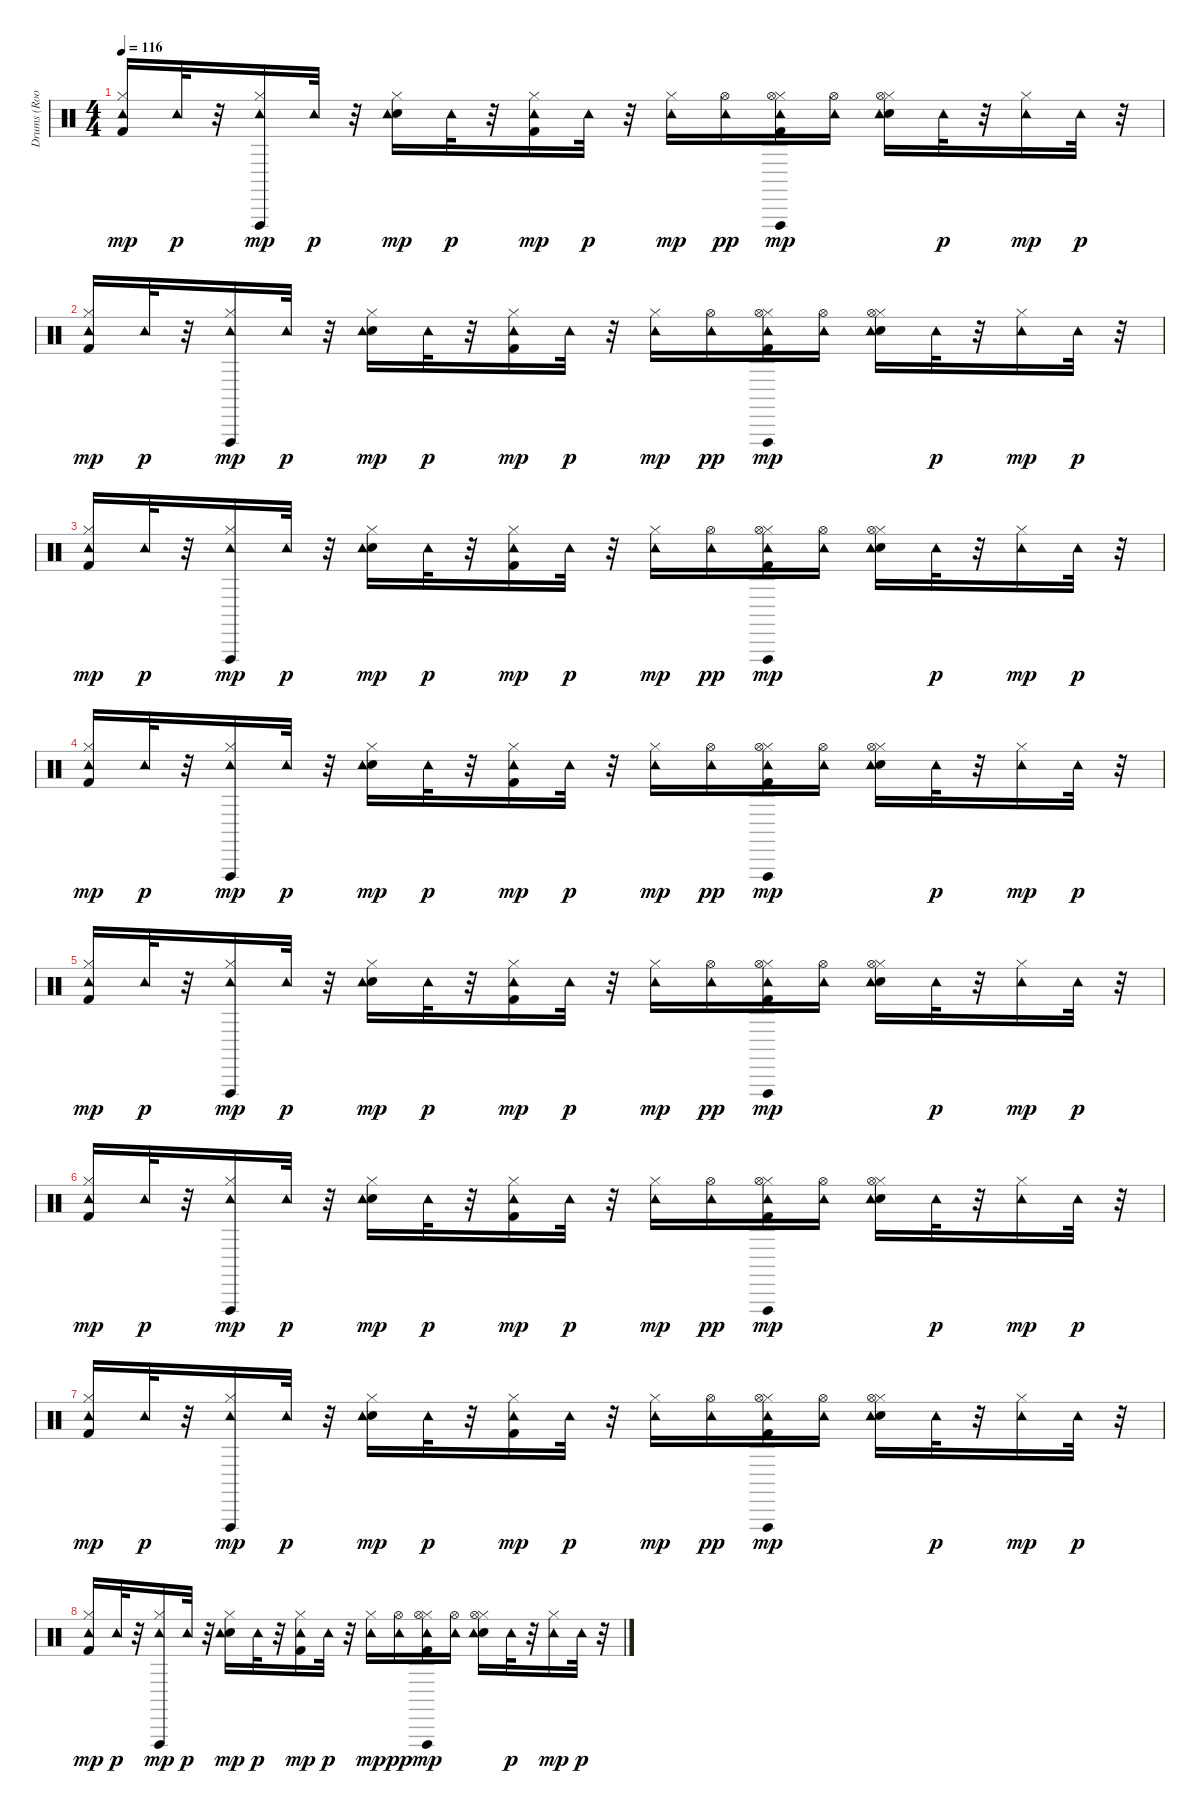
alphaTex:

\track ("Drums (Room Kit)    " "Drums (Roo") {instrument percussion}
\staff {score}
\articulation defaults
\ts (4 4)
\tempo 116
\clef neutral
\ks c
("Hi-Hat (closed)" "Kick (hit) 2" "Tambourine (hit)").16{dy mp} "Tambourine (hit)".32{dy p} r.32 ("Hi-Hat (closed)" "Tambourine (hit)" "Vibraslap (hit)").16{dy mp} "Tambourine (hit)".32{dy p} r.32 ("Hi-Hat (closed)" "Snare (hit) 2" "Tambourine (hit)").16{dy mp} "Tambourine (hit)".32{dy p} r.32 ("Hi-Hat (closed)" "Kick (hit) 2" "Tambourine (hit)").16{dy mp} "Tambourine (hit)".32{dy p} r.32 ("Hi-Hat (closed)" "Tambourine (hit)").16{dy mp} ("Tambourine (hit)" "Hi-Hat (open)").16{dy pp} ("Hi-Hat (closed)" "Kick (hit) 2" "Tambourine (hit)" "Hi-Hat (open)" "Vibraslap (hit)").16{dy mp} ("Tambourine (hit)" "Hi-Hat (open)").16 ("Hi-Hat (closed)" "Snare (hit) 2" "Tambourine (hit)" "Hi-Hat (open)").16 "Tambourine (hit)".32{dy p} r.32 ("Hi-Hat (closed)" "Tambourine (hit)").16{dy mp} "Tambourine (hit)".32{dy p} r.32 |
("Kick (hit) 2" "Hi-Hat (closed)" "Tambourine (hit)").16{dy mp} "Tambourine (hit)".32{dy p} r.32 ("Hi-Hat (closed)" "Tambourine (hit)" "Vibraslap (hit)").16{dy mp} "Tambourine (hit)".32{dy p} r.32 ("Snare (hit) 2" "Hi-Hat (closed)" "Tambourine (hit)").16{dy mp} "Tambourine (hit)".32{dy p} r.32 ("Kick (hit) 2" "Hi-Hat (closed)" "Tambourine (hit)").16{dy mp} "Tambourine (hit)".32{dy p} r.32 ("Hi-Hat (closed)" "Tambourine (hit)").16{dy mp} ("Tambourine (hit)" "Hi-Hat (open)").16{dy pp} ("Kick (hit) 2" "Hi-Hat (closed)" "Tambourine (hit)" "Hi-Hat (open)" "Vibraslap (hit)").16{dy mp} ("Tambourine (hit)" "Hi-Hat (open)").16 ("Snare (hit) 2" "Hi-Hat (closed)" "Tambourine (hit)" "Hi-Hat (open)").16 "Tambourine (hit)".32{dy p} r.32 ("Hi-Hat (closed)" "Tambourine (hit)").16{dy mp} "Tambourine (hit)".32{dy p} r.32 |
("Hi-Hat (closed)" "Kick (hit) 2" "Tambourine (hit)").16{dy mp} "Tambourine (hit)".32{dy p} r.32 ("Hi-Hat (closed)" "Tambourine (hit)" "Vibraslap (hit)").16{dy mp} "Tambourine (hit)".32{dy p} r.32 ("Hi-Hat (closed)" "Snare (hit) 2" "Tambourine (hit)").16{dy mp} "Tambourine (hit)".32{dy p} r.32 ("Hi-Hat (closed)" "Kick (hit) 2" "Tambourine (hit)").16{dy mp} "Tambourine (hit)".32{dy p} r.32 ("Hi-Hat (closed)" "Tambourine (hit)").16{dy mp} ("Tambourine (hit)" "Hi-Hat (open)").16{dy pp} ("Hi-Hat (closed)" "Kick (hit) 2" "Tambourine (hit)" "Hi-Hat (open)" "Vibraslap (hit)").16{dy mp} ("Tambourine (hit)" "Hi-Hat (open)").16 ("Hi-Hat (closed)" "Snare (hit) 2" "Tambourine (hit)" "Hi-Hat (open)").16 "Tambourine (hit)".32{dy p} r.32 ("Hi-Hat (closed)" "Tambourine (hit)").16{dy mp} "Tambourine (hit)".32{dy p} r.32 |
("Kick (hit) 2" "Hi-Hat (closed)" "Tambourine (hit)").16{dy mp} "Tambourine (hit)".32{dy p} r.32 ("Hi-Hat (closed)" "Tambourine (hit)" "Vibraslap (hit)").16{dy mp} "Tambourine (hit)".32{dy p} r.32 ("Snare (hit) 2" "Hi-Hat (closed)" "Tambourine (hit)").16{dy mp} "Tambourine (hit)".32{dy p} r.32 ("Kick (hit) 2" "Hi-Hat (closed)" "Tambourine (hit)").16{dy mp} "Tambourine (hit)".32{dy p} r.32 ("Hi-Hat (closed)" "Tambourine (hit)").16{dy mp} ("Tambourine (hit)" "Hi-Hat (open)").16{dy pp} ("Kick (hit) 2" "Hi-Hat (closed)" "Tambourine (hit)" "Hi-Hat (open)" "Vibraslap (hit)").16{dy mp} ("Tambourine (hit)" "Hi-Hat (open)").16 ("Snare (hit) 2" "Hi-Hat (closed)" "Tambourine (hit)" "Hi-Hat (open)").16 "Tambourine (hit)".32{dy p} r.32 ("Hi-Hat (closed)" "Tambourine (hit)").16{dy mp} "Tambourine (hit)".32{dy p} r.32 |
("Hi-Hat (closed)" "Kick (hit) 2" "Tambourine (hit)").16{dy mp} "Tambourine (hit)".32{dy p} r.32 ("Hi-Hat (closed)" "Tambourine (hit)" "Vibraslap (hit)").16{dy mp} "Tambourine (hit)".32{dy p} r.32 ("Hi-Hat (closed)" "Snare (hit) 2" "Tambourine (hit)").16{dy mp} "Tambourine (hit)".32{dy p} r.32 ("Hi-Hat (closed)" "Kick (hit) 2" "Tambourine (hit)").16{dy mp} "Tambourine (hit)".32{dy p} r.32 ("Hi-Hat (closed)" "Tambourine (hit)").16{dy mp} ("Tambourine (hit)" "Hi-Hat (open)").16{dy pp} ("Hi-Hat (closed)" "Kick (hit) 2" "Tambourine (hit)" "Hi-Hat (open)" "Vibraslap (hit)").16{dy mp} ("Tambourine (hit)" "Hi-Hat (open)").16 ("Hi-Hat (closed)" "Snare (hit) 2" "Tambourine (hit)" "Hi-Hat (open)").16 "Tambourine (hit)".32{dy p} r.32 ("Hi-Hat (closed)" "Tambourine (hit)").16{dy mp} "Tambourine (hit)".32{dy p} r.32 |
("Kick (hit) 2" "Hi-Hat (closed)" "Tambourine (hit)").16{dy mp} "Tambourine (hit)".32{dy p} r.32 ("Hi-Hat (closed)" "Tambourine (hit)" "Vibraslap (hit)").16{dy mp} "Tambourine (hit)".32{dy p} r.32 ("Snare (hit) 2" "Hi-Hat (closed)" "Tambourine (hit)").16{dy mp} "Tambourine (hit)".32{dy p} r.32 ("Kick (hit) 2" "Hi-Hat (closed)" "Tambourine (hit)").16{dy mp} "Tambourine (hit)".32{dy p} r.32 ("Hi-Hat (closed)" "Tambourine (hit)").16{dy mp} ("Tambourine (hit)" "Hi-Hat (open)").16{dy pp} ("Kick (hit) 2" "Hi-Hat (closed)" "Tambourine (hit)" "Hi-Hat (open)" "Vibraslap (hit)").16{dy mp} ("Tambourine (hit)" "Hi-Hat (open)").16 ("Snare (hit) 2" "Hi-Hat (closed)" "Tambourine (hit)" "Hi-Hat (open)").16 "Tambourine (hit)".32{dy p} r.32 ("Hi-Hat (closed)" "Tambourine (hit)").16{dy mp} "Tambourine (hit)".32{dy p} r.32 |
("Hi-Hat (closed)" "Kick (hit) 2" "Tambourine (hit)").16{dy mp} "Tambourine (hit)".32{dy p} r.32 ("Hi-Hat (closed)" "Tambourine (hit)" "Vibraslap (hit)").16{dy mp} "Tambourine (hit)".32{dy p} r.32 ("Hi-Hat (closed)" "Snare (hit) 2" "Tambourine (hit)").16{dy mp} "Tambourine (hit)".32{dy p} r.32 ("Hi-Hat (closed)" "Kick (hit) 2" "Tambourine (hit)").16{dy mp} "Tambourine (hit)".32{dy p} r.32 ("Hi-Hat (closed)" "Tambourine (hit)").16{dy mp} ("Tambourine (hit)" "Hi-Hat (open)").16{dy pp} ("Hi-Hat (closed)" "Kick (hit) 2" "Tambourine (hit)" "Hi-Hat (open)" "Vibraslap (hit)").16{dy mp} ("Tambourine (hit)" "Hi-Hat (open)").16 ("Hi-Hat (closed)" "Snare (hit) 2" "Tambourine (hit)" "Hi-Hat (open)").16 "Tambourine (hit)".32{dy p} r.32 ("Hi-Hat (closed)" "Tambourine (hit)").16{dy mp} "Tambourine (hit)".32{dy p} r.32 |
("Kick (hit) 2" "Hi-Hat (closed)" "Tambourine (hit)").16{dy mp} "Tambourine (hit)".32{dy p} r.32 ("Hi-Hat (closed)" "Tambourine (hit)" "Vibraslap (hit)").16{dy mp} "Tambourine (hit)".32{dy p} r.32 ("Snare (hit) 2" "Hi-Hat (closed)" "Tambourine (hit)").16{dy mp} "Tambourine (hit)".32{dy p} r.32 ("Kick (hit) 2" "Hi-Hat (closed)" "Tambourine (hit)").16{dy mp} "Tambourine (hit)".32{dy p} r.32 ("Hi-Hat (closed)" "Tambourine (hit)").16{dy mp} ("Tambourine (hit)" "Hi-Hat (open)").16{dy pp} ("Kick (hit) 2" "Hi-Hat (closed)" "Tambourine (hit)" "Hi-Hat (open)" "Vibraslap (hit)").16{dy mp} ("Tambourine (hit)" "Hi-Hat (open)").16 ("Snare (hit) 2" "Hi-Hat (closed)" "Tambourine (hit)" "Hi-Hat (open)").16 "Tambourine (hit)".32{dy p} r.32 ("Hi-Hat (closed)" "Tambourine (hit)").16{dy mp} "Tambourine (hit)".32{dy p} r.32
